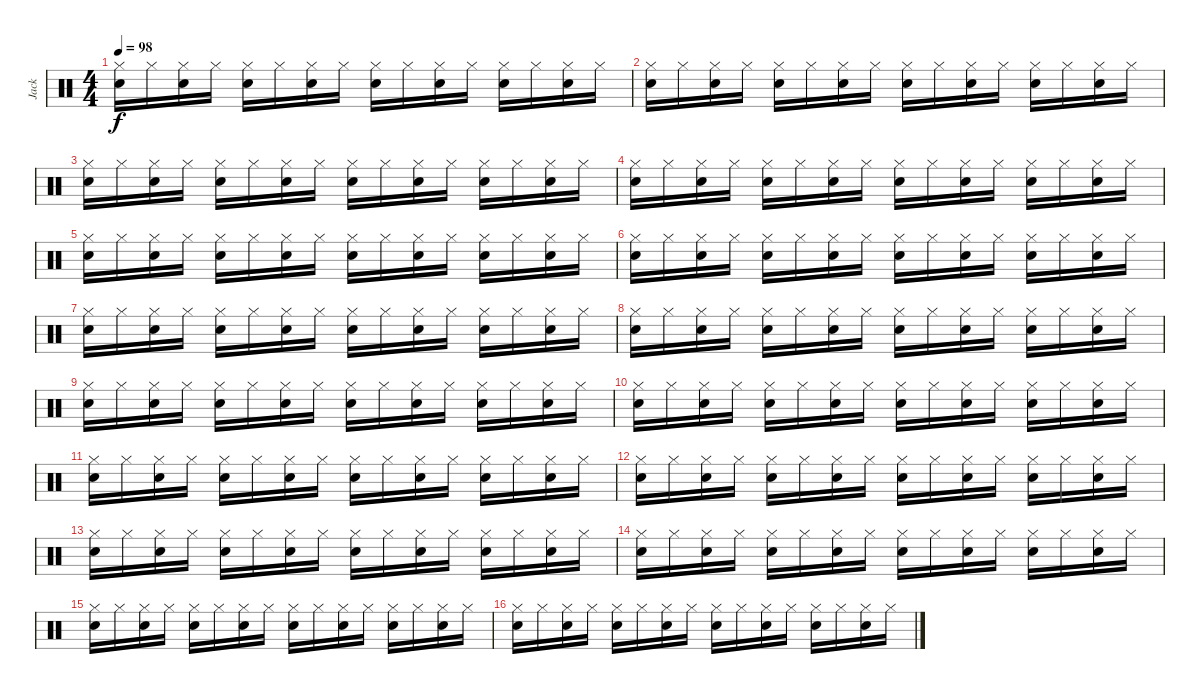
\track ("Jack" "Jack") {instrument percussion}
\staff {score}
\articulation defaults
\ts (4 4)
\tempo 98
\clef neutral
\ks c
("Hi-Hat (closed)" "Snare (hit) 2").16{dy f} "Hi-Hat (closed)".16 ("Hi-Hat (closed)" "Snare (hit) 2").16 "Hi-Hat (closed)".16 ("Hi-Hat (closed)" "Snare (hit) 2").16 "Hi-Hat (closed)".16 ("Hi-Hat (closed)" "Snare (hit) 2").16 "Hi-Hat (closed)".16 ("Hi-Hat (closed)" "Snare (hit) 2").16 "Hi-Hat (closed)".16 ("Hi-Hat (closed)" "Snare (hit) 2").16 "Hi-Hat (closed)".16 ("Hi-Hat (closed)" "Snare (hit) 2").16 "Hi-Hat (closed)".16 ("Hi-Hat (closed)" "Snare (hit) 2").16 "Hi-Hat (closed)".16 |
("Hi-Hat (closed)" "Snare (hit) 2").16 "Hi-Hat (closed)".16 ("Hi-Hat (closed)" "Snare (hit) 2").16 "Hi-Hat (closed)".16 ("Hi-Hat (closed)" "Snare (hit) 2").16 "Hi-Hat (closed)".16 ("Hi-Hat (closed)" "Snare (hit) 2").16 "Hi-Hat (closed)".16 ("Hi-Hat (closed)" "Snare (hit) 2").16 "Hi-Hat (closed)".16 ("Hi-Hat (closed)" "Snare (hit) 2").16 "Hi-Hat (closed)".16 ("Hi-Hat (closed)" "Snare (hit) 2").16 "Hi-Hat (closed)".16 ("Hi-Hat (closed)" "Snare (hit) 2").16 "Hi-Hat (closed)".16 |
("Hi-Hat (closed)" "Snare (hit) 2").16 "Hi-Hat (closed)".16 ("Hi-Hat (closed)" "Snare (hit) 2").16 "Hi-Hat (closed)".16 ("Hi-Hat (closed)" "Snare (hit) 2").16 "Hi-Hat (closed)".16 ("Hi-Hat (closed)" "Snare (hit) 2").16 "Hi-Hat (closed)".16 ("Hi-Hat (closed)" "Snare (hit) 2").16 "Hi-Hat (closed)".16 ("Hi-Hat (closed)" "Snare (hit) 2").16 "Hi-Hat (closed)".16 ("Hi-Hat (closed)" "Snare (hit) 2").16 "Hi-Hat (closed)".16 ("Hi-Hat (closed)" "Snare (hit) 2").16 "Hi-Hat (closed)".16 |
("Hi-Hat (closed)" "Snare (hit) 2").16 "Hi-Hat (closed)".16 ("Hi-Hat (closed)" "Snare (hit) 2").16 "Hi-Hat (closed)".16 ("Hi-Hat (closed)" "Snare (hit) 2").16 "Hi-Hat (closed)".16 ("Hi-Hat (closed)" "Snare (hit) 2").16 "Hi-Hat (closed)".16 ("Hi-Hat (closed)" "Snare (hit) 2").16 "Hi-Hat (closed)".16 ("Hi-Hat (closed)" "Snare (hit) 2").16 "Hi-Hat (closed)".16 ("Hi-Hat (closed)" "Snare (hit) 2").16 "Hi-Hat (closed)".16 ("Hi-Hat (closed)" "Snare (hit) 2").16 "Hi-Hat (closed)".16 |
("Hi-Hat (closed)" "Snare (hit) 2").16 "Hi-Hat (closed)".16 ("Hi-Hat (closed)" "Snare (hit) 2").16 "Hi-Hat (closed)".16 ("Hi-Hat (closed)" "Snare (hit) 2").16 "Hi-Hat (closed)".16 ("Hi-Hat (closed)" "Snare (hit) 2").16 "Hi-Hat (closed)".16 ("Hi-Hat (closed)" "Snare (hit) 2").16 "Hi-Hat (closed)".16 ("Hi-Hat (closed)" "Snare (hit) 2").16 "Hi-Hat (closed)".16 ("Hi-Hat (closed)" "Snare (hit) 2").16 "Hi-Hat (closed)".16 ("Hi-Hat (closed)" "Snare (hit) 2").16 "Hi-Hat (closed)".16 |
("Hi-Hat (closed)" "Snare (hit) 2").16 "Hi-Hat (closed)".16 ("Hi-Hat (closed)" "Snare (hit) 2").16 "Hi-Hat (closed)".16 ("Hi-Hat (closed)" "Snare (hit) 2").16 "Hi-Hat (closed)".16 ("Hi-Hat (closed)" "Snare (hit) 2").16 "Hi-Hat (closed)".16 ("Hi-Hat (closed)" "Snare (hit) 2").16 "Hi-Hat (closed)".16 ("Hi-Hat (closed)" "Snare (hit) 2").16 "Hi-Hat (closed)".16 ("Hi-Hat (closed)" "Snare (hit) 2").16 "Hi-Hat (closed)".16 ("Hi-Hat (closed)" "Snare (hit) 2").16 "Hi-Hat (closed)".16 |
("Hi-Hat (closed)" "Snare (hit) 2").16 "Hi-Hat (closed)".16 ("Hi-Hat (closed)" "Snare (hit) 2").16 "Hi-Hat (closed)".16 ("Hi-Hat (closed)" "Snare (hit) 2").16 "Hi-Hat (closed)".16 ("Hi-Hat (closed)" "Snare (hit) 2").16 "Hi-Hat (closed)".16 ("Hi-Hat (closed)" "Snare (hit) 2").16 "Hi-Hat (closed)".16 ("Hi-Hat (closed)" "Snare (hit) 2").16 "Hi-Hat (closed)".16 ("Hi-Hat (closed)" "Snare (hit) 2").16 "Hi-Hat (closed)".16 ("Hi-Hat (closed)" "Snare (hit) 2").16 "Hi-Hat (closed)".16 |
("Hi-Hat (closed)" "Snare (hit) 2").16 "Hi-Hat (closed)".16 ("Hi-Hat (closed)" "Snare (hit) 2").16 "Hi-Hat (closed)".16 ("Hi-Hat (closed)" "Snare (hit) 2").16 "Hi-Hat (closed)".16 ("Hi-Hat (closed)" "Snare (hit) 2").16 "Hi-Hat (closed)".16 ("Hi-Hat (closed)" "Snare (hit) 2").16 "Hi-Hat (closed)".16 ("Hi-Hat (closed)" "Snare (hit) 2").16 "Hi-Hat (closed)".16 ("Hi-Hat (closed)" "Snare (hit) 2").16 "Hi-Hat (closed)".16 ("Hi-Hat (closed)" "Snare (hit) 2").16 "Hi-Hat (closed)".16 |
("Hi-Hat (closed)" "Snare (hit) 2").16 "Hi-Hat (closed)".16 ("Hi-Hat (closed)" "Snare (hit) 2").16 "Hi-Hat (closed)".16 ("Hi-Hat (closed)" "Snare (hit) 2").16 "Hi-Hat (closed)".16 ("Hi-Hat (closed)" "Snare (hit) 2").16 "Hi-Hat (closed)".16 ("Hi-Hat (closed)" "Snare (hit) 2").16 "Hi-Hat (closed)".16 ("Hi-Hat (closed)" "Snare (hit) 2").16 "Hi-Hat (closed)".16 ("Hi-Hat (closed)" "Snare (hit) 2").16 "Hi-Hat (closed)".16 ("Hi-Hat (closed)" "Snare (hit) 2").16 "Hi-Hat (closed)".16 |
("Hi-Hat (closed)" "Snare (hit) 2").16 "Hi-Hat (closed)".16 ("Hi-Hat (closed)" "Snare (hit) 2").16 "Hi-Hat (closed)".16 ("Hi-Hat (closed)" "Snare (hit) 2").16 "Hi-Hat (closed)".16 ("Hi-Hat (closed)" "Snare (hit) 2").16 "Hi-Hat (closed)".16 ("Hi-Hat (closed)" "Snare (hit) 2").16 "Hi-Hat (closed)".16 ("Hi-Hat (closed)" "Snare (hit) 2").16 "Hi-Hat (closed)".16 ("Hi-Hat (closed)" "Snare (hit) 2").16 "Hi-Hat (closed)".16 ("Hi-Hat (closed)" "Snare (hit) 2").16 "Hi-Hat (closed)".16 |
("Hi-Hat (closed)" "Snare (hit) 2").16 "Hi-Hat (closed)".16 ("Hi-Hat (closed)" "Snare (hit) 2").16 "Hi-Hat (closed)".16 ("Hi-Hat (closed)" "Snare (hit) 2").16 "Hi-Hat (closed)".16 ("Hi-Hat (closed)" "Snare (hit) 2").16 "Hi-Hat (closed)".16 ("Hi-Hat (closed)" "Snare (hit) 2").16 "Hi-Hat (closed)".16 ("Hi-Hat (closed)" "Snare (hit) 2").16 "Hi-Hat (closed)".16 ("Hi-Hat (closed)" "Snare (hit) 2").16 "Hi-Hat (closed)".16 ("Hi-Hat (closed)" "Snare (hit) 2").16 "Hi-Hat (closed)".16 |
("Hi-Hat (closed)" "Snare (hit) 2").16 "Hi-Hat (closed)".16 ("Hi-Hat (closed)" "Snare (hit) 2").16 "Hi-Hat (closed)".16 ("Hi-Hat (closed)" "Snare (hit) 2").16 "Hi-Hat (closed)".16 ("Hi-Hat (closed)" "Snare (hit) 2").16 "Hi-Hat (closed)".16 ("Hi-Hat (closed)" "Snare (hit) 2").16 "Hi-Hat (closed)".16 ("Hi-Hat (closed)" "Snare (hit) 2").16 "Hi-Hat (closed)".16 ("Hi-Hat (closed)" "Snare (hit) 2").16 "Hi-Hat (closed)".16 ("Hi-Hat (closed)" "Snare (hit) 2").16 "Hi-Hat (closed)".16 |
("Hi-Hat (closed)" "Snare (hit) 2").16 "Hi-Hat (closed)".16 ("Hi-Hat (closed)" "Snare (hit) 2").16 "Hi-Hat (closed)".16 ("Hi-Hat (closed)" "Snare (hit) 2").16 "Hi-Hat (closed)".16 ("Hi-Hat (closed)" "Snare (hit) 2").16 "Hi-Hat (closed)".16 ("Hi-Hat (closed)" "Snare (hit) 2").16 "Hi-Hat (closed)".16 ("Hi-Hat (closed)" "Snare (hit) 2").16 "Hi-Hat (closed)".16 ("Hi-Hat (closed)" "Snare (hit) 2").16 "Hi-Hat (closed)".16 ("Hi-Hat (closed)" "Snare (hit) 2").16 "Hi-Hat (closed)".16 |
("Hi-Hat (closed)" "Snare (hit) 2").16 "Hi-Hat (closed)".16 ("Hi-Hat (closed)" "Snare (hit) 2").16 "Hi-Hat (closed)".16 ("Hi-Hat (closed)" "Snare (hit) 2").16 "Hi-Hat (closed)".16 ("Hi-Hat (closed)" "Snare (hit) 2").16 "Hi-Hat (closed)".16 ("Hi-Hat (closed)" "Snare (hit) 2").16 "Hi-Hat (closed)".16 ("Hi-Hat (closed)" "Snare (hit) 2").16 "Hi-Hat (closed)".16 ("Hi-Hat (closed)" "Snare (hit) 2").16 "Hi-Hat (closed)".16 ("Hi-Hat (closed)" "Snare (hit) 2").16 "Hi-Hat (closed)".16 |
("Hi-Hat (closed)" "Snare (hit) 2").16 "Hi-Hat (closed)".16 ("Hi-Hat (closed)" "Snare (hit) 2").16 "Hi-Hat (closed)".16 ("Hi-Hat (closed)" "Snare (hit) 2").16 "Hi-Hat (closed)".16 ("Hi-Hat (closed)" "Snare (hit) 2").16 "Hi-Hat (closed)".16 ("Hi-Hat (closed)" "Snare (hit) 2").16 "Hi-Hat (closed)".16 ("Hi-Hat (closed)" "Snare (hit) 2").16 "Hi-Hat (closed)".16 ("Hi-Hat (closed)" "Snare (hit) 2").16 "Hi-Hat (closed)".16 ("Hi-Hat (closed)" "Snare (hit) 2").16 "Hi-Hat (closed)".16 |
("Hi-Hat (closed)" "Snare (hit) 2").16 "Hi-Hat (closed)".16 ("Hi-Hat (closed)" "Snare (hit) 2").16 "Hi-Hat (closed)".16 ("Hi-Hat (closed)" "Snare (hit) 2").16 "Hi-Hat (closed)".16 ("Hi-Hat (closed)" "Snare (hit) 2").16 "Hi-Hat (closed)".16 ("Hi-Hat (closed)" "Snare (hit) 2").16 "Hi-Hat (closed)".16 ("Hi-Hat (closed)" "Snare (hit) 2").16 "Hi-Hat (closed)".16 ("Hi-Hat (closed)" "Snare (hit) 2").16 "Hi-Hat (closed)".16 ("Hi-Hat (closed)" "Snare (hit) 2").16 "Hi-Hat (closed)".16
